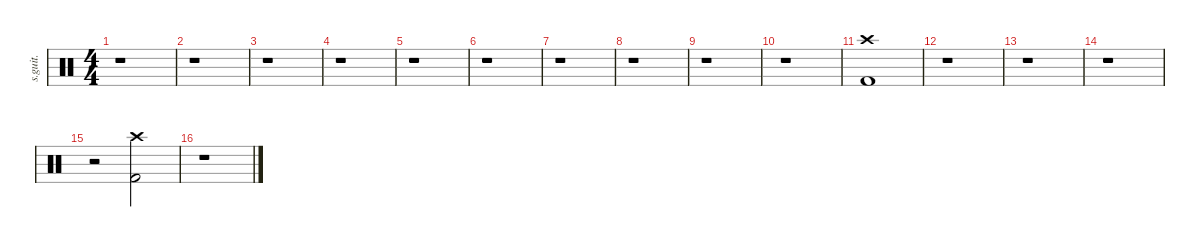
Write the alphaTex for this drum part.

\defaultSystemsLayout 4
\hideDynamics
\bracketExtendMode nobrackets
\track ("" "s.guit.") {instrument percussion}
\staff {score}
\articulation defaults
\ts (4 4)
\beaming (8 2 2 2 2)
\tempo (100 hide)
\clef neutral
\ks c
r.1{dy mf} |
r.1 |
r.1 |
r.1 |
r.1 |
r.1 |
r.1 |
r.1 |
r.1 |
r.1 |
("Crash high (hit)" "Kick (hit) 2").1 |
r.1 |
r.1 |
r.1 |
r.2 ("Crash high (hit)" "Kick (hit) 2").2 |
r.1
